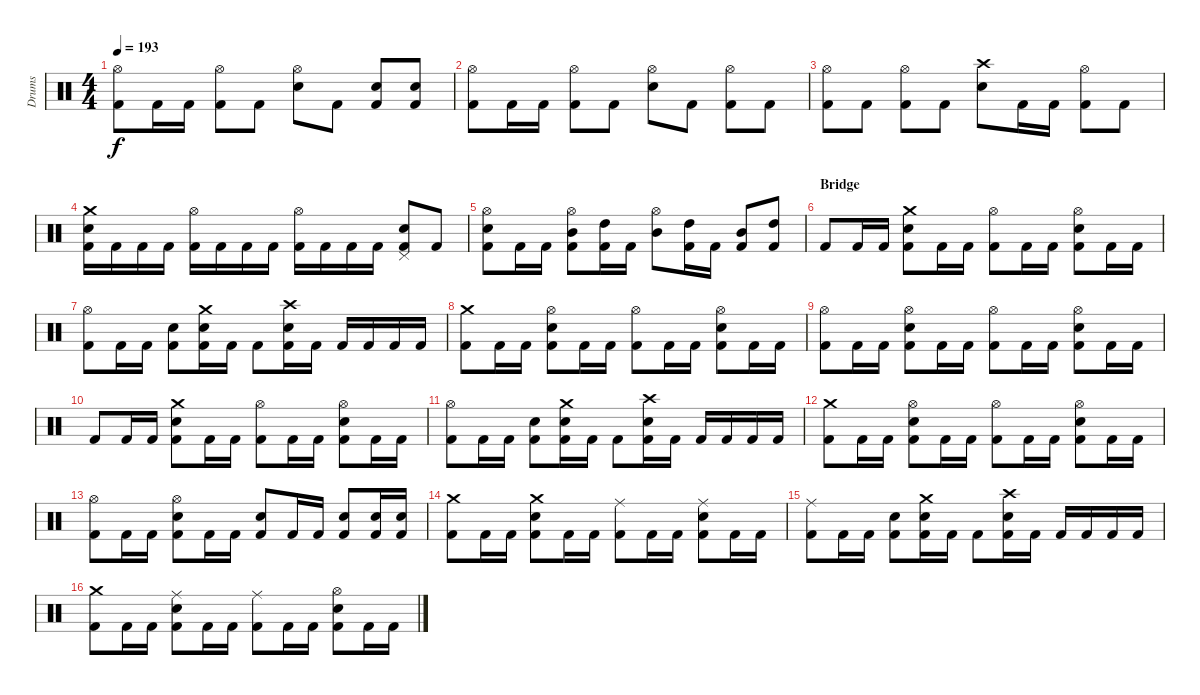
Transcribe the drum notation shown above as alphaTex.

\track ("Drums" "Drums") {instrument percussion}
\staff {score}
\articulation defaults
\ts (4 4)
\tempo 193
\clef neutral
\ks c
("Hi-Hat (open)" "Kick (hit) 2").8{dy f} "Kick (hit) 2".16 "Kick (hit) 2".16 ("Hi-Hat (open)" "Kick (hit) 2").8 "Kick (hit) 2".8 ("Hi-Hat (open)" "Snare (hit) 2").8 "Kick (hit) 2".8 ("Snare (hit) 2" "Kick (hit) 2").8 ("Snare (hit) 2" "Kick (hit) 2").8 |
("Hi-Hat (open)" "Kick (hit) 2").8 "Kick (hit) 2".16 "Kick (hit) 2".16 ("Hi-Hat (open)" "Kick (hit) 2").8 "Kick (hit) 2".8 ("Hi-Hat (open)" "Snare (hit) 2").8 "Kick (hit) 2".8 ("Hi-Hat (open)" "Kick (hit) 2").8 "Kick (hit) 2".8 |
("Hi-Hat (open)" "Kick (hit) 2").8 "Kick (hit) 2".8 ("Hi-Hat (open)" "Kick (hit) 2").8 "Kick (hit) 2".8 ("Crash high (hit)" "Snare (hit) 2").8 "Kick (hit) 2".16 "Kick (hit) 2".16 ("Hi-Hat (open)" "Kick (hit) 2").8 "Kick (hit) 2".8 |
("Crash medium (hit)" "Snare (hit) 2" "Kick (hit) 2").16 "Kick (hit) 2".16 "Kick (hit) 2".16 "Kick (hit) 2".16 ("Hi-Hat (open)" "Kick (hit) 2").16 "Kick (hit) 2".16 "Kick (hit) 2".16 "Kick (hit) 2".16 ("Hi-Hat (open)" "Kick (hit) 2").16 "Kick (hit) 2".16 "Kick (hit) 2".16 "Kick (hit) 2".16 ("Pedal Hi-Hat (hit)" "Snare (hit) 2" "Kick (hit) 2").8 "Kick (hit) 2".8 |
("Hi-Hat (open)" "Snare (hit) 2" "Kick (hit) 2").8 "Kick (hit) 2".16 "Kick (hit) 2".16 ("Mid Tom (hit)" "Hi-Hat (open)" "Kick (hit) 2").8 ("High Tom (hit)" "Kick (hit) 2").16 "Kick (hit) 2".16 ("Mid Tom (hit)" "Hi-Hat (open)").8 ("High Tom (hit)" "Kick (hit) 2").16 "Kick (hit) 2".16 ("Mid Tom (hit)" "Kick (hit) 2").8 ("High Tom (hit)" "Kick (hit) 2").8 |
\section ("" "Bridge")
"Kick (hit) 2".8 "Kick (hit) 2".16 "Kick (hit) 2".16 ("Crash medium (hit)" "Snare (hit) 2" "Kick (hit) 2").8 "Kick (hit) 2".16 "Kick (hit) 2".16 ("Hi-Hat (open)" "Kick (hit) 2").8 "Kick (hit) 2".16 "Kick (hit) 2".16 ("Hi-Hat (open)" "Snare (hit) 2" "Kick (hit) 2").8 "Kick (hit) 2".16 "Kick (hit) 2".16 |
("Hi-Hat (open)" "Kick (hit) 2").8 "Kick (hit) 2".16 "Kick (hit) 2".16 ("Snare (hit) 2" "Kick (hit) 2").8 ("Crash medium (hit)" "Snare (hit) 2" "Kick (hit) 2").16 "Kick (hit) 2".16 "Kick (hit) 2".8 ("Crash high (hit)" "Snare (hit) 2" "Kick (hit) 2").16 "Kick (hit) 2".16 "Kick (hit) 2".16 "Kick (hit) 2".16 "Kick (hit) 2".16 "Kick (hit) 2".16 |
("Crash medium (hit)" "Kick (hit) 2").8 "Kick (hit) 2".16 "Kick (hit) 2".16 ("Hi-Hat (open)" "Snare (hit) 2" "Kick (hit) 2").8 "Kick (hit) 2".16 "Kick (hit) 2".16 ("Hi-Hat (open)" "Kick (hit) 2").8 "Kick (hit) 2".16 "Kick (hit) 2".16 ("Hi-Hat (open)" "Snare (hit) 2" "Kick (hit) 2").8 "Kick (hit) 2".16 "Kick (hit) 2".16 |
("Hi-Hat (open)" "Kick (hit) 2").8 "Kick (hit) 2".16 "Kick (hit) 2".16 ("Hi-Hat (open)" "Snare (hit) 2" "Kick (hit) 2").8 "Kick (hit) 2".16 "Kick (hit) 2".16 ("Hi-Hat (open)" "Kick (hit) 2").8 "Kick (hit) 2".16 "Kick (hit) 2".16 ("Hi-Hat (open)" "Snare (hit) 2" "Kick (hit) 2").8 "Kick (hit) 2".16 "Kick (hit) 2".16 |
"Kick (hit) 2".8 "Kick (hit) 2".16 "Kick (hit) 2".16 ("Crash medium (hit)" "Snare (hit) 2" "Kick (hit) 2").8 "Kick (hit) 2".16 "Kick (hit) 2".16 ("Hi-Hat (open)" "Kick (hit) 2").8 "Kick (hit) 2".16 "Kick (hit) 2".16 ("Hi-Hat (open)" "Snare (hit) 2" "Kick (hit) 2").8 "Kick (hit) 2".16 "Kick (hit) 2".16 |
("Hi-Hat (open)" "Kick (hit) 2").8 "Kick (hit) 2".16 "Kick (hit) 2".16 ("Snare (hit) 2" "Kick (hit) 2").8 ("Crash medium (hit)" "Snare (hit) 2" "Kick (hit) 2").16 "Kick (hit) 2".16 "Kick (hit) 2".8 ("Crash high (hit)" "Snare (hit) 2" "Kick (hit) 2").16 "Kick (hit) 2".16 "Kick (hit) 2".16 "Kick (hit) 2".16 "Kick (hit) 2".16 "Kick (hit) 2".16 |
("Crash medium (hit)" "Kick (hit) 2").8 "Kick (hit) 2".16 "Kick (hit) 2".16 ("Hi-Hat (open)" "Snare (hit) 2" "Kick (hit) 2").8 "Kick (hit) 2".16 "Kick (hit) 2".16 ("Hi-Hat (open)" "Kick (hit) 2").8 "Kick (hit) 2".16 "Kick (hit) 2".16 ("Hi-Hat (open)" "Snare (hit) 2" "Kick (hit) 2").8 "Kick (hit) 2".16 "Kick (hit) 2".16 |
("Hi-Hat (open)" "Kick (hit) 2").8 "Kick (hit) 2".16 "Kick (hit) 2".16 ("Hi-Hat (open)" "Snare (hit) 2" "Kick (hit) 2").8 "Kick (hit) 2".16 "Kick (hit) 2".16 ("Snare (hit) 2" "Kick (hit) 2").8 "Kick (hit) 2".16 "Kick (hit) 2".16 ("Snare (hit) 2" "Kick (hit) 2").8 ("Snare (hit) 2" "Kick (hit) 2").16 ("Snare (hit) 2" "Kick (hit) 2").16 |
("Crash medium (hit)" "Kick (hit) 2").8 "Kick (hit) 2".16 "Kick (hit) 2".16 ("Crash medium (hit)" "Snare (hit) 2" "Kick (hit) 2").8 "Kick (hit) 2".16 "Kick (hit) 2".16 ("Ride (middle)" "Kick (hit) 2").8 "Kick (hit) 2".16 "Kick (hit) 2".16 ("Ride (middle)" "Snare (hit) 2" "Kick (hit) 2").8 "Kick (hit) 2".16 "Kick (hit) 2".16 |
("Ride (middle)" "Kick (hit) 2").8 "Kick (hit) 2".16 "Kick (hit) 2".16 ("Snare (hit) 2" "Kick (hit) 2").8 ("Crash medium (hit)" "Snare (hit) 2" "Kick (hit) 2").16 "Kick (hit) 2".16 "Kick (hit) 2".8 ("Crash high (hit)" "Snare (hit) 2" "Kick (hit) 2").16 "Kick (hit) 2".16 "Kick (hit) 2".16 "Kick (hit) 2".16 "Kick (hit) 2".16 "Kick (hit) 2".16 |
("Crash medium (hit)" "Kick (hit) 2").8 "Kick (hit) 2".16 "Kick (hit) 2".16 ("Ride (middle)" "Snare (hit) 2" "Kick (hit) 2").8 "Kick (hit) 2".16 "Kick (hit) 2".16 ("Ride (middle)" "Kick (hit) 2").8 "Kick (hit) 2".16 "Kick (hit) 2".16 ("Hi-Hat (open)" "Snare (hit) 2" "Kick (hit) 2").8 "Kick (hit) 2".16 "Kick (hit) 2".16
